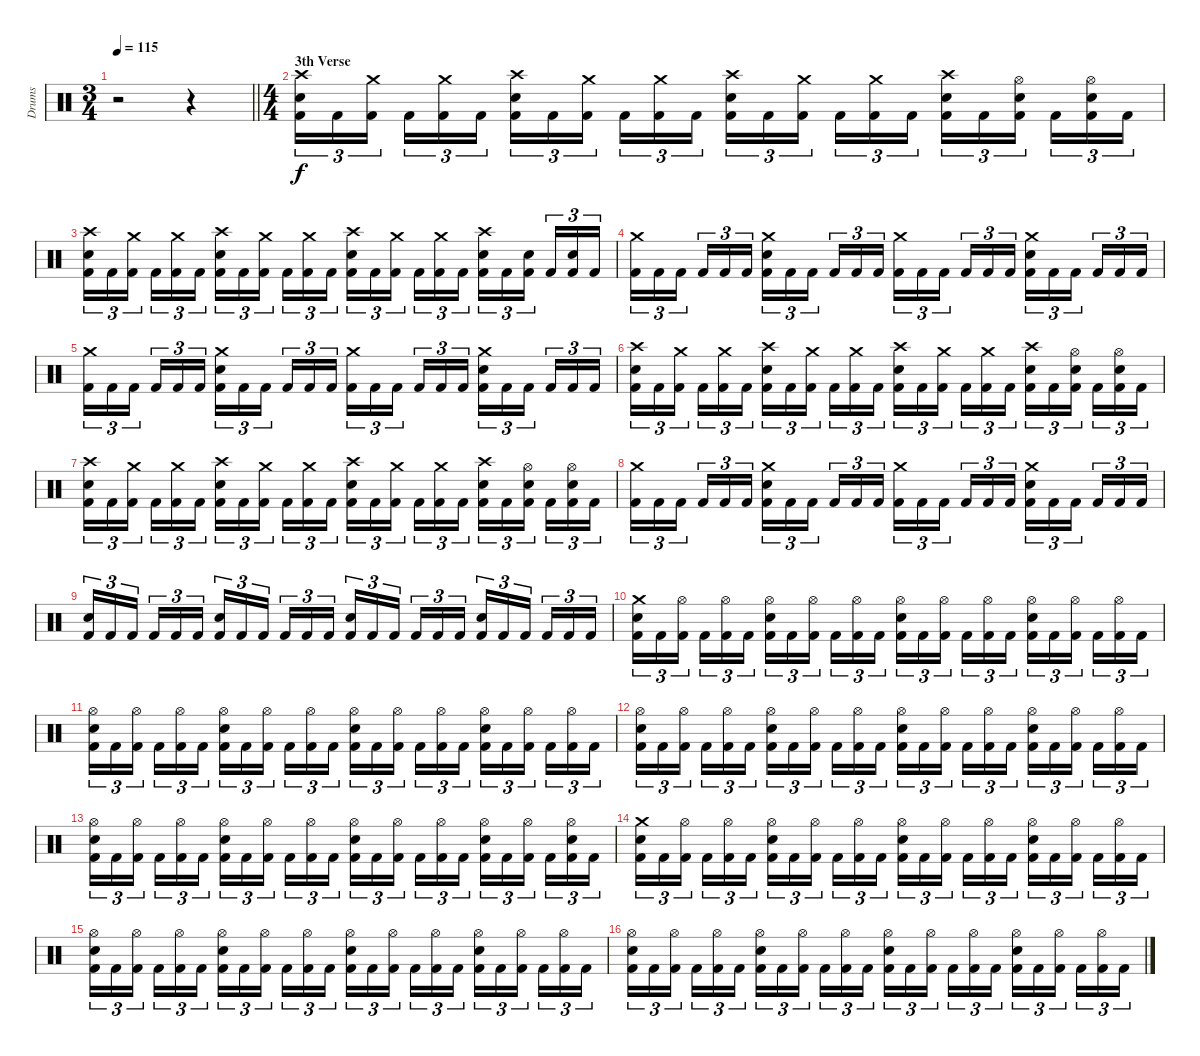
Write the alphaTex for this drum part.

\track ("Drums" "Drums") {instrument percussion}
\staff {score}
\articulation defaults
\ts (3 4)
\tempo 115
\clef neutral
\barLineRight lightlight
\ks c
r.2{dy f} r.4 |
\ts (4 4)
\section ("" "3th Verse")
("Kick (hit) 2" "Electric Snare (hit)" "Crash high (hit)").16{tu (3 2)} "Kick (hit) 2".16{tu (3 2)} ("Kick (hit) 2" "Crash medium (hit)").16{tu (3 2)} "Kick (hit) 2".16{tu (3 2)} ("Kick (hit) 2" "Crash medium (hit)").16{tu (3 2)} "Kick (hit) 2".16{tu (3 2)} ("Kick (hit) 2" "Electric Snare (hit)" "Crash high (hit)").16{tu (3 2)} "Kick (hit) 2".16{tu (3 2)} ("Kick (hit) 2" "Crash medium (hit)").16{tu (3 2)} "Kick (hit) 2".16{tu (3 2)} ("Kick (hit) 2" "Crash medium (hit)").16{tu (3 2)} "Kick (hit) 2".16{tu (3 2)} ("Kick (hit) 2" "Electric Snare (hit)" "Crash high (hit)").16{tu (3 2)} "Kick (hit) 2".16{tu (3 2)} ("Kick (hit) 2" "Crash medium (hit)").16{tu (3 2)} "Kick (hit) 2".16{tu (3 2)} ("Kick (hit) 2" "Crash medium (hit)").16{tu (3 2)} "Kick (hit) 2".16{tu (3 2)} ("Kick (hit) 2" "Electric Snare (hit)" "Crash high (hit)").16{tu (3 2)} "Kick (hit) 2".16{tu (3 2)} ("Kick (hit) 2" "Electric Snare (hit)" "Hi-Hat (open)").16{tu (3 2)} "Kick (hit) 2".16{tu (3 2)} ("Kick (hit) 2" "Electric Snare (hit)" "Hi-Hat (open)").16{tu (3 2)} "Kick (hit) 2".16{tu (3 2)} |
("Kick (hit) 2" "Electric Snare (hit)" "Crash high (hit)").16{tu (3 2)} "Kick (hit) 2".16{tu (3 2)} ("Kick (hit) 2" "Crash medium (hit)").16{tu (3 2)} "Kick (hit) 2".16{tu (3 2)} ("Kick (hit) 2" "Crash medium (hit)").16{tu (3 2)} "Kick (hit) 2".16{tu (3 2)} ("Kick (hit) 2" "Electric Snare (hit)" "Crash high (hit)").16{tu (3 2)} "Kick (hit) 2".16{tu (3 2)} ("Kick (hit) 2" "Crash medium (hit)").16{tu (3 2)} "Kick (hit) 2".16{tu (3 2)} ("Kick (hit) 2" "Crash medium (hit)").16{tu (3 2)} "Kick (hit) 2".16{tu (3 2)} ("Kick (hit) 2" "Electric Snare (hit)" "Crash high (hit)").16{tu (3 2)} "Kick (hit) 2".16{tu (3 2)} ("Kick (hit) 2" "Crash medium (hit)").16{tu (3 2)} "Kick (hit) 2".16{tu (3 2)} ("Kick (hit) 2" "Crash medium (hit)").16{tu (3 2)} "Kick (hit) 2".16{tu (3 2)} ("Kick (hit) 2" "Electric Snare (hit)" "Crash high (hit)").16{tu (3 2)} "Kick (hit) 2".16{tu (3 2)} ("Kick (hit) 2" "Electric Snare (hit)").16{tu (3 2)} "Kick (hit) 2".16{tu (3 2)} ("Kick (hit) 2" "Electric Snare (hit)").16{tu (3 2)} "Kick (hit) 2".16{tu (3 2)} |
("Kick (hit) 2" "Crash medium (hit)").16{tu (3 2)} "Kick (hit) 2".16{tu (3 2)} "Kick (hit) 2".16{tu (3 2)} "Kick (hit) 2".16{tu (3 2)} "Kick (hit) 2".16{tu (3 2)} "Kick (hit) 2".16{tu (3 2)} ("Kick (hit) 2" "Electric Snare (hit)" "Crash medium (hit)").16{tu (3 2)} "Kick (hit) 2".16{tu (3 2)} "Kick (hit) 2".16{tu (3 2)} "Kick (hit) 2".16{tu (3 2)} "Kick (hit) 2".16{tu (3 2)} "Kick (hit) 2".16{tu (3 2)} ("Kick (hit) 2" "Crash medium (hit)").16{tu (3 2)} "Kick (hit) 2".16{tu (3 2)} "Kick (hit) 2".16{tu (3 2)} "Kick (hit) 2".16{tu (3 2)} "Kick (hit) 2".16{tu (3 2)} "Kick (hit) 2".16{tu (3 2)} ("Kick (hit) 2" "Electric Snare (hit)" "Crash medium (hit)").16{tu (3 2)} "Kick (hit) 2".16{tu (3 2)} "Kick (hit) 2".16{tu (3 2)} "Kick (hit) 2".16{tu (3 2)} "Kick (hit) 2".16{tu (3 2)} "Kick (hit) 2".16{tu (3 2)} |
("Kick (hit) 2" "Crash medium (hit)").16{tu (3 2)} "Kick (hit) 2".16{tu (3 2)} "Kick (hit) 2".16{tu (3 2)} "Kick (hit) 2".16{tu (3 2)} "Kick (hit) 2".16{tu (3 2)} "Kick (hit) 2".16{tu (3 2)} ("Kick (hit) 2" "Electric Snare (hit)" "Crash medium (hit)").16{tu (3 2)} "Kick (hit) 2".16{tu (3 2)} "Kick (hit) 2".16{tu (3 2)} "Kick (hit) 2".16{tu (3 2)} "Kick (hit) 2".16{tu (3 2)} "Kick (hit) 2".16{tu (3 2)} ("Kick (hit) 2" "Crash medium (hit)").16{tu (3 2)} "Kick (hit) 2".16{tu (3 2)} "Kick (hit) 2".16{tu (3 2)} "Kick (hit) 2".16{tu (3 2)} "Kick (hit) 2".16{tu (3 2)} "Kick (hit) 2".16{tu (3 2)} ("Kick (hit) 2" "Electric Snare (hit)" "Crash medium (hit)").16{tu (3 2)} "Kick (hit) 2".16{tu (3 2)} "Kick (hit) 2".16{tu (3 2)} "Kick (hit) 2".16{tu (3 2)} "Kick (hit) 2".16{tu (3 2)} "Kick (hit) 2".16{tu (3 2)} |
("Kick (hit) 2" "Electric Snare (hit)" "Crash high (hit)").16{tu (3 2)} "Kick (hit) 2".16{tu (3 2)} ("Kick (hit) 2" "Crash medium (hit)").16{tu (3 2)} "Kick (hit) 2".16{tu (3 2)} ("Kick (hit) 2" "Crash medium (hit)").16{tu (3 2)} "Kick (hit) 2".16{tu (3 2)} ("Kick (hit) 2" "Electric Snare (hit)" "Crash high (hit)").16{tu (3 2)} "Kick (hit) 2".16{tu (3 2)} ("Kick (hit) 2" "Crash medium (hit)").16{tu (3 2)} "Kick (hit) 2".16{tu (3 2)} ("Kick (hit) 2" "Crash medium (hit)").16{tu (3 2)} "Kick (hit) 2".16{tu (3 2)} ("Kick (hit) 2" "Electric Snare (hit)" "Crash high (hit)").16{tu (3 2)} "Kick (hit) 2".16{tu (3 2)} ("Kick (hit) 2" "Crash medium (hit)").16{tu (3 2)} "Kick (hit) 2".16{tu (3 2)} ("Kick (hit) 2" "Crash medium (hit)").16{tu (3 2)} "Kick (hit) 2".16{tu (3 2)} ("Kick (hit) 2" "Electric Snare (hit)" "Crash high (hit)").16{tu (3 2)} "Kick (hit) 2".16{tu (3 2)} ("Kick (hit) 2" "Electric Snare (hit)" "Hi-Hat (open)").16{tu (3 2)} "Kick (hit) 2".16{tu (3 2)} ("Kick (hit) 2" "Electric Snare (hit)" "Hi-Hat (open)").16{tu (3 2)} "Kick (hit) 2".16{tu (3 2)} |
("Kick (hit) 2" "Electric Snare (hit)" "Crash high (hit)").16{tu (3 2)} "Kick (hit) 2".16{tu (3 2)} ("Kick (hit) 2" "Crash medium (hit)").16{tu (3 2)} "Kick (hit) 2".16{tu (3 2)} ("Kick (hit) 2" "Crash medium (hit)").16{tu (3 2)} "Kick (hit) 2".16{tu (3 2)} ("Kick (hit) 2" "Electric Snare (hit)" "Crash high (hit)").16{tu (3 2)} "Kick (hit) 2".16{tu (3 2)} ("Kick (hit) 2" "Crash medium (hit)").16{tu (3 2)} "Kick (hit) 2".16{tu (3 2)} ("Kick (hit) 2" "Crash medium (hit)").16{tu (3 2)} "Kick (hit) 2".16{tu (3 2)} ("Kick (hit) 2" "Electric Snare (hit)" "Crash high (hit)").16{tu (3 2)} "Kick (hit) 2".16{tu (3 2)} ("Kick (hit) 2" "Crash medium (hit)").16{tu (3 2)} "Kick (hit) 2".16{tu (3 2)} ("Kick (hit) 2" "Crash medium (hit)").16{tu (3 2)} "Kick (hit) 2".16{tu (3 2)} ("Kick (hit) 2" "Electric Snare (hit)" "Crash high (hit)").16{tu (3 2)} "Kick (hit) 2".16{tu (3 2)} ("Kick (hit) 2" "Electric Snare (hit)" "Hi-Hat (open)").16{tu (3 2)} "Kick (hit) 2".16{tu (3 2)} ("Kick (hit) 2" "Electric Snare (hit)" "Hi-Hat (open)").16{tu (3 2)} "Kick (hit) 2".16{tu (3 2)} |
("Kick (hit) 2" "Crash medium (hit)").16{tu (3 2)} "Kick (hit) 2".16{tu (3 2)} "Kick (hit) 2".16{tu (3 2)} "Kick (hit) 2".16{tu (3 2)} "Kick (hit) 2".16{tu (3 2)} "Kick (hit) 2".16{tu (3 2)} ("Kick (hit) 2" "Electric Snare (hit)" "Crash medium (hit)").16{tu (3 2)} "Kick (hit) 2".16{tu (3 2)} "Kick (hit) 2".16{tu (3 2)} "Kick (hit) 2".16{tu (3 2)} "Kick (hit) 2".16{tu (3 2)} "Kick (hit) 2".16{tu (3 2)} ("Kick (hit) 2" "Crash medium (hit)").16{tu (3 2)} "Kick (hit) 2".16{tu (3 2)} "Kick (hit) 2".16{tu (3 2)} "Kick (hit) 2".16{tu (3 2)} "Kick (hit) 2".16{tu (3 2)} "Kick (hit) 2".16{tu (3 2)} ("Kick (hit) 2" "Electric Snare (hit)" "Crash medium (hit)").16{tu (3 2)} "Kick (hit) 2".16{tu (3 2)} "Kick (hit) 2".16{tu (3 2)} "Kick (hit) 2".16{tu (3 2)} "Kick (hit) 2".16{tu (3 2)} "Kick (hit) 2".16{tu (3 2)} |
("Kick (hit) 2" "Electric Snare (hit)").16{tu (3 2)} "Kick (hit) 2".16{tu (3 2)} "Kick (hit) 2".16{tu (3 2)} "Kick (hit) 2".16{tu (3 2)} "Kick (hit) 2".16{tu (3 2)} "Kick (hit) 2".16{tu (3 2)} ("Kick (hit) 2" "Electric Snare (hit)").16{tu (3 2)} "Kick (hit) 2".16{tu (3 2)} "Kick (hit) 2".16{tu (3 2)} "Kick (hit) 2".16{tu (3 2)} "Kick (hit) 2".16{tu (3 2)} "Kick (hit) 2".16{tu (3 2)} ("Kick (hit) 2" "Electric Snare (hit)").16{tu (3 2)} "Kick (hit) 2".16{tu (3 2)} "Kick (hit) 2".16{tu (3 2)} "Kick (hit) 2".16{tu (3 2)} "Kick (hit) 2".16{tu (3 2)} "Kick (hit) 2".16{tu (3 2)} ("Kick (hit) 2" "Electric Snare (hit)").16{tu (3 2)} "Kick (hit) 2".16{tu (3 2)} "Kick (hit) 2".16{tu (3 2)} "Kick (hit) 2".16{tu (3 2)} "Kick (hit) 2".16{tu (3 2)} "Kick (hit) 2".16{tu (3 2)} |
("Kick (hit) 2" "Electric Snare (hit)" "Crash medium (hit)").16{tu (3 2)} "Kick (hit) 2".16{tu (3 2)} ("Kick (hit) 2" "Hi-Hat (open)").16{tu (3 2)} "Kick (hit) 2".16{tu (3 2)} ("Kick (hit) 2" "Hi-Hat (open)").16{tu (3 2)} "Kick (hit) 2".16{tu (3 2)} ("Kick (hit) 2" "Electric Snare (hit)" "Hi-Hat (open)").16{tu (3 2)} "Kick (hit) 2".16{tu (3 2)} ("Kick (hit) 2" "Hi-Hat (open)").16{tu (3 2)} "Kick (hit) 2".16{tu (3 2)} ("Kick (hit) 2" "Hi-Hat (open)").16{tu (3 2)} "Kick (hit) 2".16{tu (3 2)} ("Kick (hit) 2" "Electric Snare (hit)" "Hi-Hat (open)").16{tu (3 2)} "Kick (hit) 2".16{tu (3 2)} ("Kick (hit) 2" "Hi-Hat (open)").16{tu (3 2)} "Kick (hit) 2".16{tu (3 2)} ("Kick (hit) 2" "Hi-Hat (open)").16{tu (3 2)} "Kick (hit) 2".16{tu (3 2)} ("Kick (hit) 2" "Electric Snare (hit)" "Hi-Hat (open)").16{tu (3 2)} "Kick (hit) 2".16{tu (3 2)} ("Kick (hit) 2" "Hi-Hat (open)").16{tu (3 2)} "Kick (hit) 2".16{tu (3 2)} ("Kick (hit) 2" "Hi-Hat (open)").16{tu (3 2)} "Kick (hit) 2".16{tu (3 2)} |
("Kick (hit) 2" "Electric Snare (hit)" "Hi-Hat (open)").16{tu (3 2)} "Kick (hit) 2".16{tu (3 2)} ("Kick (hit) 2" "Hi-Hat (open)").16{tu (3 2)} "Kick (hit) 2".16{tu (3 2)} ("Kick (hit) 2" "Hi-Hat (open)").16{tu (3 2)} "Kick (hit) 2".16{tu (3 2)} ("Kick (hit) 2" "Electric Snare (hit)" "Hi-Hat (open)").16{tu (3 2)} "Kick (hit) 2".16{tu (3 2)} ("Kick (hit) 2" "Hi-Hat (open)").16{tu (3 2)} "Kick (hit) 2".16{tu (3 2)} ("Kick (hit) 2" "Hi-Hat (open)").16{tu (3 2)} "Kick (hit) 2".16{tu (3 2)} ("Kick (hit) 2" "Electric Snare (hit)" "Hi-Hat (open)").16{tu (3 2)} "Kick (hit) 2".16{tu (3 2)} ("Kick (hit) 2" "Hi-Hat (open)").16{tu (3 2)} "Kick (hit) 2".16{tu (3 2)} ("Kick (hit) 2" "Hi-Hat (open)").16{tu (3 2)} "Kick (hit) 2".16{tu (3 2)} ("Kick (hit) 2" "Electric Snare (hit)" "Hi-Hat (open)").16{tu (3 2)} "Kick (hit) 2".16{tu (3 2)} ("Kick (hit) 2" "Hi-Hat (open)").16{tu (3 2)} "Kick (hit) 2".16{tu (3 2)} ("Kick (hit) 2" "Hi-Hat (open)").16{tu (3 2)} "Kick (hit) 2".16{tu (3 2)} |
("Kick (hit) 2" "Electric Snare (hit)" "Hi-Hat (open)").16{tu (3 2)} "Kick (hit) 2".16{tu (3 2)} ("Kick (hit) 2" "Hi-Hat (open)").16{tu (3 2)} "Kick (hit) 2".16{tu (3 2)} ("Kick (hit) 2" "Hi-Hat (open)").16{tu (3 2)} "Kick (hit) 2".16{tu (3 2)} ("Kick (hit) 2" "Electric Snare (hit)" "Hi-Hat (open)").16{tu (3 2)} "Kick (hit) 2".16{tu (3 2)} ("Kick (hit) 2" "Hi-Hat (open)").16{tu (3 2)} "Kick (hit) 2".16{tu (3 2)} ("Kick (hit) 2" "Hi-Hat (open)").16{tu (3 2)} "Kick (hit) 2".16{tu (3 2)} ("Kick (hit) 2" "Electric Snare (hit)" "Hi-Hat (open)").16{tu (3 2)} "Kick (hit) 2".16{tu (3 2)} ("Kick (hit) 2" "Hi-Hat (open)").16{tu (3 2)} "Kick (hit) 2".16{tu (3 2)} ("Kick (hit) 2" "Hi-Hat (open)").16{tu (3 2)} "Kick (hit) 2".16{tu (3 2)} ("Kick (hit) 2" "Electric Snare (hit)" "Hi-Hat (open)").16{tu (3 2)} "Kick (hit) 2".16{tu (3 2)} ("Kick (hit) 2" "Hi-Hat (open)").16{tu (3 2)} "Kick (hit) 2".16{tu (3 2)} ("Kick (hit) 2" "Hi-Hat (open)").16{tu (3 2)} "Kick (hit) 2".16{tu (3 2)} |
("Kick (hit) 2" "Electric Snare (hit)" "Hi-Hat (open)").16{tu (3 2)} "Kick (hit) 2".16{tu (3 2)} ("Kick (hit) 2" "Hi-Hat (open)").16{tu (3 2)} "Kick (hit) 2".16{tu (3 2)} ("Kick (hit) 2" "Hi-Hat (open)").16{tu (3 2)} "Kick (hit) 2".16{tu (3 2)} ("Kick (hit) 2" "Electric Snare (hit)" "Hi-Hat (open)").16{tu (3 2)} "Kick (hit) 2".16{tu (3 2)} ("Kick (hit) 2" "Hi-Hat (open)").16{tu (3 2)} "Kick (hit) 2".16{tu (3 2)} ("Kick (hit) 2" "Hi-Hat (open)").16{tu (3 2)} "Kick (hit) 2".16{tu (3 2)} ("Kick (hit) 2" "Electric Snare (hit)" "Hi-Hat (open)").16{tu (3 2)} "Kick (hit) 2".16{tu (3 2)} ("Kick (hit) 2" "Hi-Hat (open)").16{tu (3 2)} "Kick (hit) 2".16{tu (3 2)} ("Kick (hit) 2" "Hi-Hat (open)").16{tu (3 2)} "Kick (hit) 2".16{tu (3 2)} ("Kick (hit) 2" "Electric Snare (hit)" "Hi-Hat (open)").16{tu (3 2)} "Kick (hit) 2".16{tu (3 2)} ("Kick (hit) 2" "Hi-Hat (open)").16{tu (3 2)} "Kick (hit) 2".16{tu (3 2)} ("Kick (hit) 2" "Electric Snare (hit)" "Hi-Hat (open)").16{tu (3 2)} "Kick (hit) 2".16{tu (3 2)} |
("Kick (hit) 2" "Electric Snare (hit)" "Crash medium (hit)").16{tu (3 2)} "Kick (hit) 2".16{tu (3 2)} ("Kick (hit) 2" "Hi-Hat (open)").16{tu (3 2)} "Kick (hit) 2".16{tu (3 2)} ("Kick (hit) 2" "Hi-Hat (open)").16{tu (3 2)} "Kick (hit) 2".16{tu (3 2)} ("Kick (hit) 2" "Electric Snare (hit)" "Hi-Hat (open)").16{tu (3 2)} "Kick (hit) 2".16{tu (3 2)} ("Kick (hit) 2" "Hi-Hat (open)").16{tu (3 2)} "Kick (hit) 2".16{tu (3 2)} ("Kick (hit) 2" "Hi-Hat (open)").16{tu (3 2)} "Kick (hit) 2".16{tu (3 2)} ("Kick (hit) 2" "Electric Snare (hit)" "Hi-Hat (open)").16{tu (3 2)} "Kick (hit) 2".16{tu (3 2)} ("Kick (hit) 2" "Hi-Hat (open)").16{tu (3 2)} "Kick (hit) 2".16{tu (3 2)} ("Kick (hit) 2" "Hi-Hat (open)").16{tu (3 2)} "Kick (hit) 2".16{tu (3 2)} ("Kick (hit) 2" "Electric Snare (hit)" "Hi-Hat (open)").16{tu (3 2)} "Kick (hit) 2".16{tu (3 2)} ("Kick (hit) 2" "Hi-Hat (open)").16{tu (3 2)} "Kick (hit) 2".16{tu (3 2)} ("Kick (hit) 2" "Hi-Hat (open)").16{tu (3 2)} "Kick (hit) 2".16{tu (3 2)} |
("Kick (hit) 2" "Electric Snare (hit)" "Hi-Hat (open)").16{tu (3 2)} "Kick (hit) 2".16{tu (3 2)} ("Kick (hit) 2" "Hi-Hat (open)").16{tu (3 2)} "Kick (hit) 2".16{tu (3 2)} ("Kick (hit) 2" "Hi-Hat (open)").16{tu (3 2)} "Kick (hit) 2".16{tu (3 2)} ("Kick (hit) 2" "Electric Snare (hit)" "Hi-Hat (open)").16{tu (3 2)} "Kick (hit) 2".16{tu (3 2)} ("Kick (hit) 2" "Hi-Hat (open)").16{tu (3 2)} "Kick (hit) 2".16{tu (3 2)} ("Kick (hit) 2" "Hi-Hat (open)").16{tu (3 2)} "Kick (hit) 2".16{tu (3 2)} ("Kick (hit) 2" "Electric Snare (hit)" "Hi-Hat (open)").16{tu (3 2)} "Kick (hit) 2".16{tu (3 2)} ("Kick (hit) 2" "Hi-Hat (open)").16{tu (3 2)} "Kick (hit) 2".16{tu (3 2)} ("Kick (hit) 2" "Hi-Hat (open)").16{tu (3 2)} "Kick (hit) 2".16{tu (3 2)} ("Kick (hit) 2" "Electric Snare (hit)" "Hi-Hat (open)").16{tu (3 2)} "Kick (hit) 2".16{tu (3 2)} ("Kick (hit) 2" "Hi-Hat (open)").16{tu (3 2)} "Kick (hit) 2".16{tu (3 2)} ("Kick (hit) 2" "Hi-Hat (open)").16{tu (3 2)} "Kick (hit) 2".16{tu (3 2)} |
("Kick (hit) 2" "Electric Snare (hit)" "Hi-Hat (open)").16{tu (3 2)} "Kick (hit) 2".16{tu (3 2)} ("Kick (hit) 2" "Hi-Hat (open)").16{tu (3 2)} "Kick (hit) 2".16{tu (3 2)} ("Kick (hit) 2" "Hi-Hat (open)").16{tu (3 2)} "Kick (hit) 2".16{tu (3 2)} ("Kick (hit) 2" "Electric Snare (hit)" "Hi-Hat (open)").16{tu (3 2)} "Kick (hit) 2".16{tu (3 2)} ("Kick (hit) 2" "Hi-Hat (open)").16{tu (3 2)} "Kick (hit) 2".16{tu (3 2)} ("Kick (hit) 2" "Hi-Hat (open)").16{tu (3 2)} "Kick (hit) 2".16{tu (3 2)} ("Kick (hit) 2" "Electric Snare (hit)" "Hi-Hat (open)").16{tu (3 2)} "Kick (hit) 2".16{tu (3 2)} ("Kick (hit) 2" "Hi-Hat (open)").16{tu (3 2)} "Kick (hit) 2".16{tu (3 2)} ("Kick (hit) 2" "Hi-Hat (open)").16{tu (3 2)} "Kick (hit) 2".16{tu (3 2)} ("Kick (hit) 2" "Electric Snare (hit)" "Hi-Hat (open)").16{tu (3 2)} "Kick (hit) 2".16{tu (3 2)} ("Kick (hit) 2" "Hi-Hat (open)").16{tu (3 2)} "Kick (hit) 2".16{tu (3 2)} ("Kick (hit) 2" "Hi-Hat (open)").16{tu (3 2)} "Kick (hit) 2".16{tu (3 2)}
